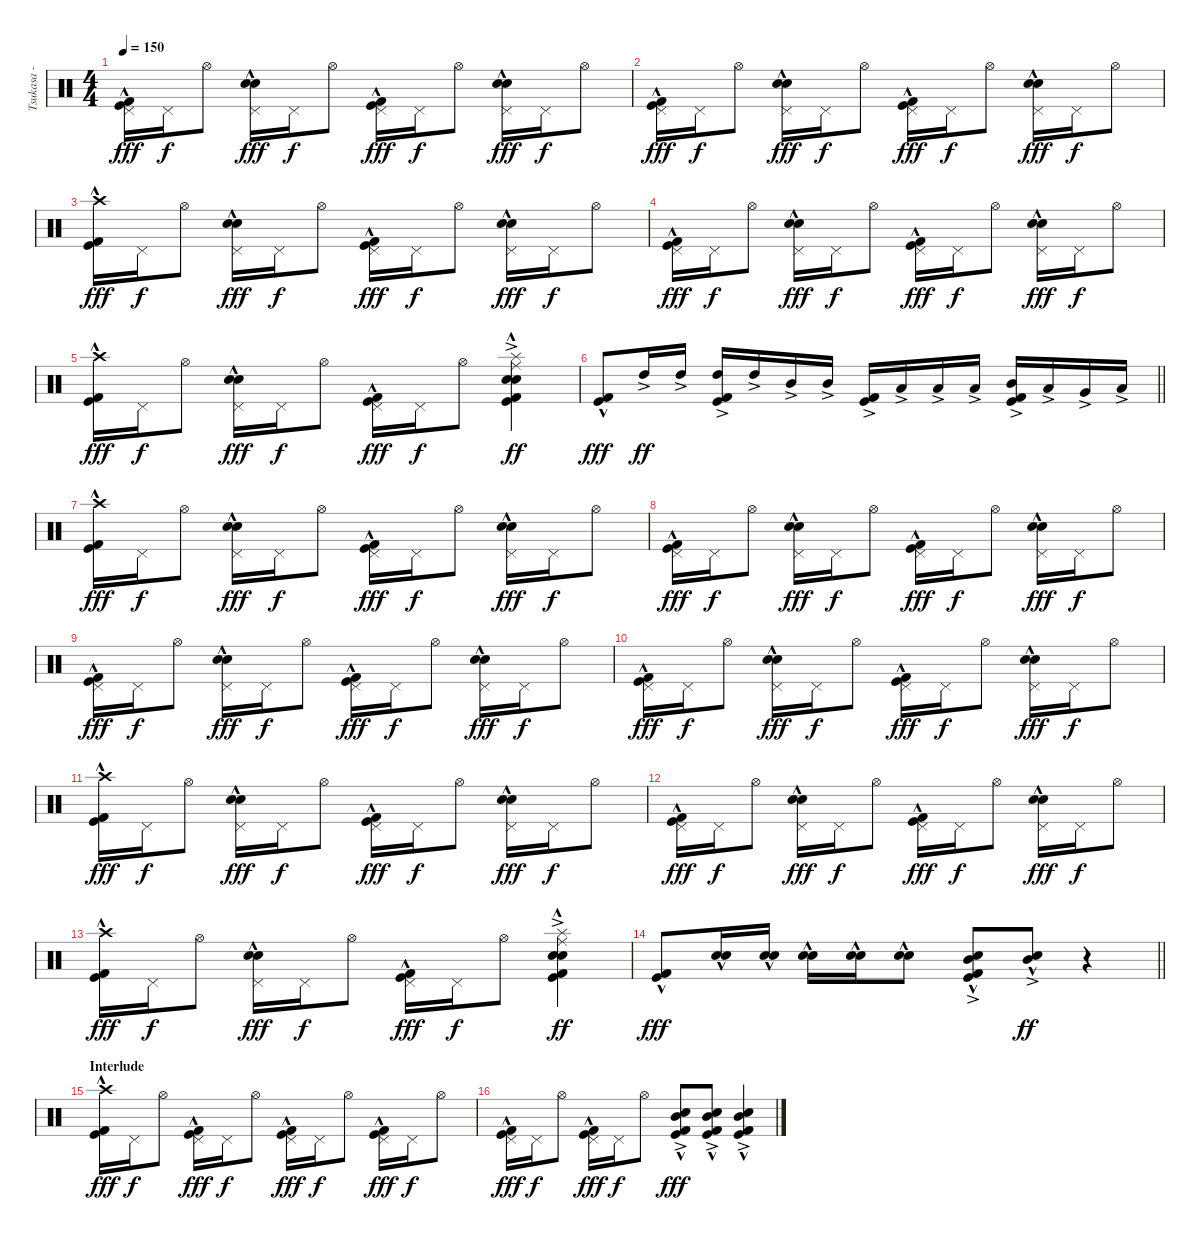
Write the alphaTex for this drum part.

\track ("Tsukasa - Drums" "Tsukasa - ") {instrument percussion}
\staff {score}
\articulation defaults
\ts (4 4)
\tempo 150
\clef neutral
\ks c
("Pedal Hi-Hat (hit)" "Kick (hit)"{hac} "Kick (hit) 2"{hac}).16{dy fff} "Pedal Hi-Hat (hit)".16{dy f} "Hi-Hat (open)".8 ("Pedal Hi-Hat (hit)" "Electric Snare (hit)"{hac} "Snare (hit) 2").16{dy fff} "Pedal Hi-Hat (hit)".16{dy f} "Hi-Hat (open)".8 ("Pedal Hi-Hat (hit)" "Kick (hit)"{hac} "Kick (hit) 2"{hac}).16{dy fff} "Pedal Hi-Hat (hit)".16{dy f} "Hi-Hat (open)".8 ("Pedal Hi-Hat (hit)" "Electric Snare (hit)"{hac} "Snare (hit) 2").16{dy fff} "Pedal Hi-Hat (hit)".16{dy f} "Hi-Hat (open)".8 |
("Pedal Hi-Hat (hit)" "Kick (hit)"{hac} "Kick (hit) 2"{hac}).16{dy fff} "Pedal Hi-Hat (hit)".16{dy f} "Hi-Hat (open)".8 ("Pedal Hi-Hat (hit)" "Electric Snare (hit)"{hac} "Snare (hit) 2").16{dy fff} "Pedal Hi-Hat (hit)".16{dy f} "Hi-Hat (open)".8 ("Pedal Hi-Hat (hit)" "Kick (hit)"{hac} "Kick (hit) 2"{hac}).16{dy fff} "Pedal Hi-Hat (hit)".16{dy f} "Hi-Hat (open)".8 ("Pedal Hi-Hat (hit)" "Electric Snare (hit)"{hac} "Snare (hit) 2").16{dy fff} "Pedal Hi-Hat (hit)".16{dy f} "Hi-Hat (open)".8 |
("Crash high (hit)" "Kick (hit)"{hac} "Kick (hit) 2"{hac}).16{dy fff} "Pedal Hi-Hat (hit)".16{dy f} "Hi-Hat (open)".8 ("Pedal Hi-Hat (hit)" "Electric Snare (hit)"{hac} "Snare (hit) 2").16{dy fff} "Pedal Hi-Hat (hit)".16{dy f} "Hi-Hat (open)".8 ("Pedal Hi-Hat (hit)" "Kick (hit)"{hac} "Kick (hit) 2"{hac}).16{dy fff} "Pedal Hi-Hat (hit)".16{dy f} "Hi-Hat (open)".8 ("Pedal Hi-Hat (hit)" "Electric Snare (hit)"{hac} "Snare (hit) 2").16{dy fff} "Pedal Hi-Hat (hit)".16{dy f} "Hi-Hat (open)".8 |
("Pedal Hi-Hat (hit)" "Kick (hit)"{hac} "Kick (hit) 2"{hac}).16{dy fff} "Pedal Hi-Hat (hit)".16{dy f} "Hi-Hat (open)".8 ("Pedal Hi-Hat (hit)" "Electric Snare (hit)"{hac} "Snare (hit) 2").16{dy fff} "Pedal Hi-Hat (hit)".16{dy f} "Hi-Hat (open)".8 ("Pedal Hi-Hat (hit)" "Kick (hit)"{hac} "Kick (hit) 2"{hac}).16{dy fff} "Pedal Hi-Hat (hit)".16{dy f} "Hi-Hat (open)".8 ("Pedal Hi-Hat (hit)" "Electric Snare (hit)"{hac} "Snare (hit) 2").16{dy fff} "Pedal Hi-Hat (hit)".16{dy f} "Hi-Hat (open)".8 |
("Crash high (hit)" "Kick (hit)"{hac} "Kick (hit) 2"{hac}).16{dy fff} "Pedal Hi-Hat (hit)".16{dy f} "Hi-Hat (open)".8 ("Pedal Hi-Hat (hit)" "Electric Snare (hit)"{hac} "Snare (hit) 2").16{dy fff} "Pedal Hi-Hat (hit)".16{dy f} "Hi-Hat (open)".8 ("Pedal Hi-Hat (hit)" "Kick (hit)"{hac} "Kick (hit) 2"{hac}).16{dy fff} "Pedal Hi-Hat (hit)".16{dy f} "Hi-Hat (open)".8 ("Splash (hit)"{ac} "Ride (middle)"{hac} "Electric Snare (hit)" "Snare (hit) 2" "Kick (hit)" "Kick (hit) 2"{ac}).4{dy ff} |
\barLineRight lightlight
("Kick (hit)"{hac} "Kick (hit) 2"{hac}).8{dy fff} "High Tom (hit)"{ac}.16{dy ff} "High Tom (hit)"{ac}.16 ("High Tom (hit)"{ac} "Kick (hit)" "Kick (hit) 2"{ac}).16 "High Tom (hit)"{ac}.16 "Mid Tom (hit)"{ac}.16 "Mid Tom (hit)"{ac}.16 ("Kick (hit)" "Kick (hit) 2"{ac}).16 "Low Tom (hit)"{ac}.16 "Low Tom (hit)"{ac}.16 "Low Tom (hit)"{ac}.16 ("Mid Tom (hit)"{ac} "Kick (hit)" "Kick (hit) 2"{ac}).16 "Low Tom (hit)"{ac}.16 "Very Low Tom (hit)"{ac}.16 "Low Floor Tom (hit)"{ac}.16 |
\section ("" "")
("Crash high (hit)" "Kick (hit)"{hac} "Kick (hit) 2"{hac}).16{dy fff} "Pedal Hi-Hat (hit)".16{dy f} "Hi-Hat (open)".8 ("Pedal Hi-Hat (hit)" "Electric Snare (hit)"{hac} "Snare (hit) 2").16{dy fff} "Pedal Hi-Hat (hit)".16{dy f} "Hi-Hat (open)".8 ("Pedal Hi-Hat (hit)" "Kick (hit)"{hac} "Kick (hit) 2"{hac}).16{dy fff} "Pedal Hi-Hat (hit)".16{dy f} "Hi-Hat (open)".8 ("Pedal Hi-Hat (hit)" "Electric Snare (hit)"{hac} "Snare (hit) 2").16{dy fff} "Pedal Hi-Hat (hit)".16{dy f} "Hi-Hat (open)".8 |
("Pedal Hi-Hat (hit)" "Kick (hit)"{hac} "Kick (hit) 2"{hac}).16{dy fff} "Pedal Hi-Hat (hit)".16{dy f} "Hi-Hat (open)".8 ("Pedal Hi-Hat (hit)" "Electric Snare (hit)"{hac} "Snare (hit) 2").16{dy fff} "Pedal Hi-Hat (hit)".16{dy f} "Hi-Hat (open)".8 ("Pedal Hi-Hat (hit)" "Kick (hit)"{hac} "Kick (hit) 2"{hac}).16{dy fff} "Pedal Hi-Hat (hit)".16{dy f} "Hi-Hat (open)".8 ("Pedal Hi-Hat (hit)" "Electric Snare (hit)"{hac} "Snare (hit) 2").16{dy fff} "Pedal Hi-Hat (hit)".16{dy f} "Hi-Hat (open)".8 |
("Pedal Hi-Hat (hit)" "Kick (hit)"{hac} "Kick (hit) 2"{hac}).16{dy fff} "Pedal Hi-Hat (hit)".16{dy f} "Hi-Hat (open)".8 ("Pedal Hi-Hat (hit)" "Electric Snare (hit)"{hac} "Snare (hit) 2").16{dy fff} "Pedal Hi-Hat (hit)".16{dy f} "Hi-Hat (open)".8 ("Pedal Hi-Hat (hit)" "Kick (hit)"{hac} "Kick (hit) 2"{hac}).16{dy fff} "Pedal Hi-Hat (hit)".16{dy f} "Hi-Hat (open)".8 ("Pedal Hi-Hat (hit)" "Electric Snare (hit)"{hac} "Snare (hit) 2").16{dy fff} "Pedal Hi-Hat (hit)".16{dy f} "Hi-Hat (open)".8 |
("Pedal Hi-Hat (hit)" "Kick (hit)"{hac} "Kick (hit) 2"{hac}).16{dy fff} "Pedal Hi-Hat (hit)".16{dy f} "Hi-Hat (open)".8 ("Pedal Hi-Hat (hit)" "Electric Snare (hit)"{hac} "Snare (hit) 2").16{dy fff} "Pedal Hi-Hat (hit)".16{dy f} "Hi-Hat (open)".8 ("Pedal Hi-Hat (hit)" "Kick (hit)"{hac} "Kick (hit) 2"{hac}).16{dy fff} "Pedal Hi-Hat (hit)".16{dy f} "Hi-Hat (open)".8 ("Pedal Hi-Hat (hit)" "Electric Snare (hit)"{hac} "Snare (hit) 2").16{dy fff} "Pedal Hi-Hat (hit)".16{dy f} "Hi-Hat (open)".8 |
("Crash high (hit)" "Kick (hit)"{hac} "Kick (hit) 2"{hac}).16{dy fff} "Pedal Hi-Hat (hit)".16{dy f} "Hi-Hat (open)".8 ("Pedal Hi-Hat (hit)" "Electric Snare (hit)"{hac} "Snare (hit) 2").16{dy fff} "Pedal Hi-Hat (hit)".16{dy f} "Hi-Hat (open)".8 ("Pedal Hi-Hat (hit)" "Kick (hit)"{hac} "Kick (hit) 2"{hac}).16{dy fff} "Pedal Hi-Hat (hit)".16{dy f} "Hi-Hat (open)".8 ("Pedal Hi-Hat (hit)" "Electric Snare (hit)"{hac} "Snare (hit) 2").16{dy fff} "Pedal Hi-Hat (hit)".16{dy f} "Hi-Hat (open)".8 |
("Pedal Hi-Hat (hit)" "Kick (hit)"{hac} "Kick (hit) 2"{hac}).16{dy fff} "Pedal Hi-Hat (hit)".16{dy f} "Hi-Hat (open)".8 ("Pedal Hi-Hat (hit)" "Electric Snare (hit)"{hac} "Snare (hit) 2").16{dy fff} "Pedal Hi-Hat (hit)".16{dy f} "Hi-Hat (open)".8 ("Pedal Hi-Hat (hit)" "Kick (hit)"{hac} "Kick (hit) 2"{hac}).16{dy fff} "Pedal Hi-Hat (hit)".16{dy f} "Hi-Hat (open)".8 ("Pedal Hi-Hat (hit)" "Electric Snare (hit)"{hac} "Snare (hit) 2").16{dy fff} "Pedal Hi-Hat (hit)".16{dy f} "Hi-Hat (open)".8 |
("Crash high (hit)" "Kick (hit)"{hac} "Kick (hit) 2"{hac}).16{dy fff} "Pedal Hi-Hat (hit)".16{dy f} "Hi-Hat (open)".8 ("Pedal Hi-Hat (hit)" "Electric Snare (hit)"{hac} "Snare (hit) 2").16{dy fff} "Pedal Hi-Hat (hit)".16{dy f} "Hi-Hat (open)".8 ("Pedal Hi-Hat (hit)" "Kick (hit)"{hac} "Kick (hit) 2"{hac}).16{dy fff} "Pedal Hi-Hat (hit)".16{dy f} "Hi-Hat (open)".8 ("Splash (hit)"{ac} "Ride (middle)"{hac} "Electric Snare (hit)" "Snare (hit) 2" "Kick (hit)" "Kick (hit) 2"{ac}).4{dy ff} |
\barLineRight lightlight
("Kick (hit)"{hac} "Kick (hit) 2"{hac}).8{dy fff} ("Electric Snare (hit)"{hac} "Snare (hit) 2").16 ("Electric Snare (hit)"{hac} "Snare (hit) 2").16 ("Electric Snare (hit)"{hac} "Snare (hit) 2").16 ("Electric Snare (hit)"{hac} "Snare (hit) 2").16 ("Electric Snare (hit)"{hac} "Snare (hit) 2").8 ("Electric Snare (hit)"{hac} "Mid Tom (hit)"{ac} "Kick (hit)" "Kick (hit) 2"{hac}).8 ("Electric Snare (hit)"{hac} "Mid Tom (hit)"{ac}).8{dy ff} r.4 |
\section ("" "Interlude")
("Crash high (hit)" "Kick (hit)" "Kick (hit) 2"{hac}).16{dy fff} "Pedal Hi-Hat (hit)".16{dy f} "Hi-Hat (open)".8 ("Pedal Hi-Hat (hit)" "Kick (hit)" "Kick (hit) 2"{hac}).16{dy fff} "Pedal Hi-Hat (hit)".16{dy f} "Hi-Hat (open)".8 ("Pedal Hi-Hat (hit)" "Kick (hit)" "Kick (hit) 2"{hac}).16{dy fff} "Pedal Hi-Hat (hit)".16{dy f} "Hi-Hat (open)".8 ("Pedal Hi-Hat (hit)" "Kick (hit)" "Kick (hit) 2"{hac}).16{dy fff} "Pedal Hi-Hat (hit)".16{dy f} "Hi-Hat (open)".8 |
("Pedal Hi-Hat (hit)" "Kick (hit)" "Kick (hit) 2"{hac}).16{dy fff} "Pedal Hi-Hat (hit)".16{dy f} "Hi-Hat (open)".8 ("Pedal Hi-Hat (hit)" "Kick (hit)" "Kick (hit) 2"{hac}).16{dy fff} "Pedal Hi-Hat (hit)".16{dy f} "Hi-Hat (open)".8 ("Electric Snare (hit)" "Mid Tom (hit)" "Kick (hit)"{ac} "Kick (hit) 2"{hac}).8{dy fff} ("Electric Snare (hit)" "Mid Tom (hit)" "Kick (hit)"{ac} "Kick (hit) 2"{hac}).8 ("Electric Snare (hit)" "Mid Tom (hit)" "Kick (hit)"{ac} "Kick (hit) 2"{hac}).4
